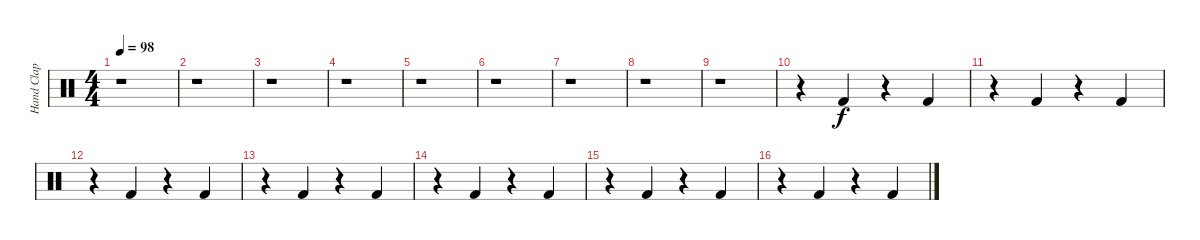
\track ("Hand Clap" "Hand Clap") {instrument percussion}
\staff {score}
\articulation defaults
\ts (4 4)
\tempo 98
\clef neutral
\ks c
r.1{dy f} |
r.1 |
r.1 |
r.1 |
r.1 |
r.1 |
r.1 |
r.1 |
r.1 |
r.4 "Kick (hit) 2".4 r.4 "Kick (hit) 2".4 |
r.4 "Kick (hit) 2".4 r.4 "Kick (hit) 2".4 |
r.4 "Kick (hit) 2".4 r.4 "Kick (hit) 2".4 |
r.4 "Kick (hit) 2".4 r.4 "Kick (hit) 2".4 |
r.4 "Kick (hit) 2".4 r.4 "Kick (hit) 2".4 |
r.4 "Kick (hit) 2".4 r.4 "Kick (hit) 2".4 |
r.4 "Kick (hit) 2".4 r.4 "Kick (hit) 2".4
